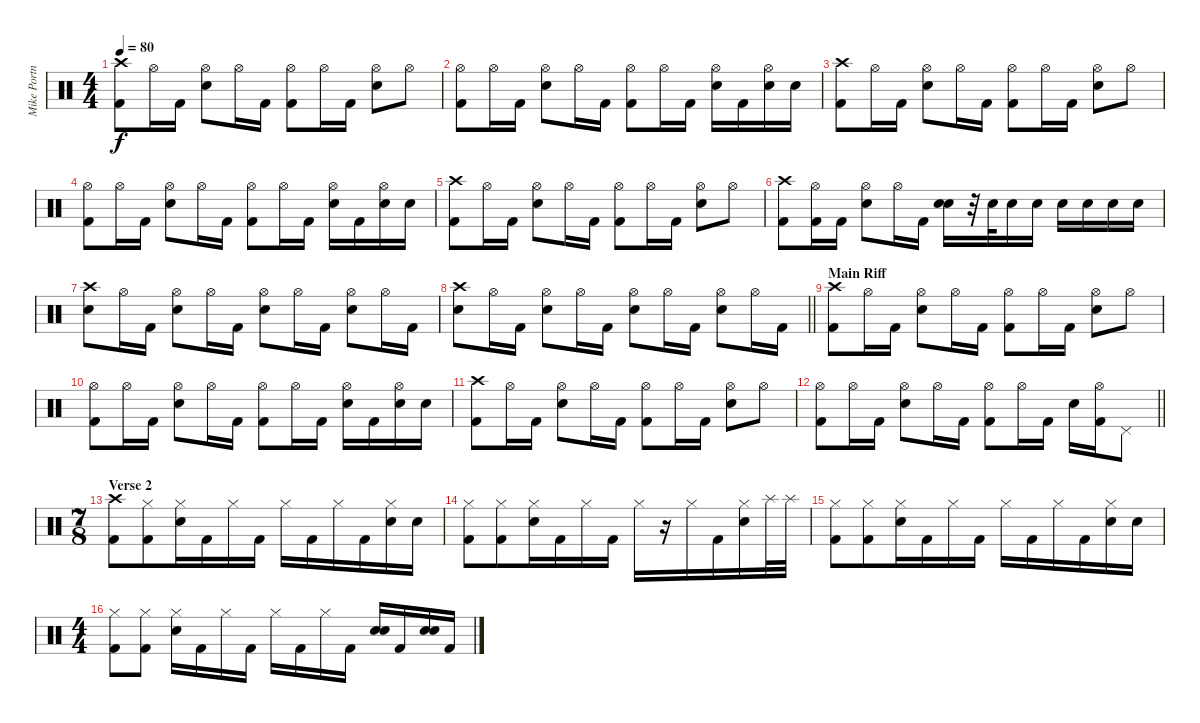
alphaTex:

\track ("Mike Portnoy" "Mike Portn") {instrument percussion}
\staff {score}
\articulation defaults
\ts (4 4)
\tempo 80
\clef neutral
\ks c
("Kick (hit) 2" "Crash high (hit)").8{dy f} "Hi-Hat (open)".16 "Kick (hit) 2".16 ("Electric Snare (hit)" "Hi-Hat (open)").8 "Hi-Hat (open)".16 "Kick (hit) 2".16 ("Kick (hit) 2" "Hi-Hat (open)").8 "Hi-Hat (open)".16 "Kick (hit) 2".16 ("Electric Snare (hit)" "Hi-Hat (open)").8 "Hi-Hat (open)".8 |
("Kick (hit) 2" "Hi-Hat (open)").8 "Hi-Hat (open)".16 "Kick (hit) 2".16 ("Electric Snare (hit)" "Hi-Hat (open)").8 "Hi-Hat (open)".16 "Kick (hit) 2".16 ("Kick (hit) 2" "Hi-Hat (open)").8 "Hi-Hat (open)".16 "Kick (hit) 2".16 ("Electric Snare (hit)" "Hi-Hat (open)").16 "Kick (hit) 2".16 ("Electric Snare (hit)" "Hi-Hat (open)").16 "Electric Snare (hit)".16 |
("Kick (hit) 2" "Crash high (hit)").8 "Hi-Hat (open)".16 "Kick (hit) 2".16 ("Electric Snare (hit)" "Hi-Hat (open)").8 "Hi-Hat (open)".16 "Kick (hit) 2".16 ("Kick (hit) 2" "Hi-Hat (open)").8 "Hi-Hat (open)".16 "Kick (hit) 2".16 ("Electric Snare (hit)" "Hi-Hat (open)").8 "Hi-Hat (open)".8 |
("Kick (hit) 2" "Hi-Hat (open)").8 "Hi-Hat (open)".16 "Kick (hit) 2".16 ("Electric Snare (hit)" "Hi-Hat (open)").8 "Hi-Hat (open)".16 "Kick (hit) 2".16 ("Kick (hit) 2" "Hi-Hat (open)").8 "Hi-Hat (open)".16 "Kick (hit) 2".16 ("Electric Snare (hit)" "Hi-Hat (open)").16 "Kick (hit) 2".16 ("Electric Snare (hit)" "Hi-Hat (open)").16 "Electric Snare (hit)".16 |
("Kick (hit) 2" "Crash high (hit)").8 "Hi-Hat (open)".16 "Kick (hit) 2".16 ("Electric Snare (hit)" "Hi-Hat (open)").8 "Hi-Hat (open)".16 "Kick (hit) 2".16 ("Kick (hit) 2" "Hi-Hat (open)").8 "Hi-Hat (open)".16 "Kick (hit) 2".16 ("Electric Snare (hit)" "Hi-Hat (open)").8 "Hi-Hat (open)".8 |
("Kick (hit) 2" "Crash high (hit)").8 ("Kick (hit) 2" "Hi-Hat (open)").16 "Kick (hit) 2".16 ("Electric Snare (hit)" "Hi-Hat (open)").8 "Hi-Hat (open)".16 "Kick (hit) 2".16 ("Electric Snare (hit)" "Electric Snare (hit)").16{bu 240} r.32 "Electric Snare (hit)".32 "Electric Snare (hit)".16 "Electric Snare (hit)".16 "Electric Snare (hit)".16 "Electric Snare (hit)".16 "Electric Snare (hit)".16 "Electric Snare (hit)".16 |
("Crash high (hit)" "Electric Snare (hit)").8 "Hi-Hat (open)".16 "Kick (hit) 2".16 ("Hi-Hat (open)" "Electric Snare (hit)").8 "Hi-Hat (open)".16 "Kick (hit) 2".16 ("Hi-Hat (open)" "Electric Snare (hit)").8 "Hi-Hat (open)".16 "Kick (hit) 2".16 ("Hi-Hat (open)" "Electric Snare (hit)").8 "Hi-Hat (open)".16 "Kick (hit) 2".16 |
\barLineRight lightlight
("Crash high (hit)" "Electric Snare (hit)").8 "Hi-Hat (open)".16 "Kick (hit) 2".16 ("Hi-Hat (open)" "Electric Snare (hit)").8 "Hi-Hat (open)".16 "Kick (hit) 2".16 ("Hi-Hat (open)" "Electric Snare (hit)").8 "Hi-Hat (open)".16 "Kick (hit) 2".16 ("Hi-Hat (open)" "Electric Snare (hit)").8 "Hi-Hat (open)".16 "Kick (hit) 2".16 |
\section ("" "Main Riff")
("Kick (hit) 2" "Crash high (hit)").8 "Hi-Hat (open)".16 "Kick (hit) 2".16 ("Electric Snare (hit)" "Hi-Hat (open)").8 "Hi-Hat (open)".16 "Kick (hit) 2".16 ("Kick (hit) 2" "Hi-Hat (open)").8 "Hi-Hat (open)".16 "Kick (hit) 2".16 ("Electric Snare (hit)" "Hi-Hat (open)").8 "Hi-Hat (open)".8 |
("Kick (hit) 2" "Hi-Hat (open)").8 "Hi-Hat (open)".16 "Kick (hit) 2".16 ("Electric Snare (hit)" "Hi-Hat (open)").8 "Hi-Hat (open)".16 "Kick (hit) 2".16 ("Kick (hit) 2" "Hi-Hat (open)").8 "Hi-Hat (open)".16 "Kick (hit) 2".16 ("Electric Snare (hit)" "Hi-Hat (open)").16 "Kick (hit) 2".16 ("Electric Snare (hit)" "Hi-Hat (open)").16 "Electric Snare (hit)".16 |
("Kick (hit) 2" "Crash high (hit)").8 "Hi-Hat (open)".16 "Kick (hit) 2".16 ("Electric Snare (hit)" "Hi-Hat (open)").8 "Hi-Hat (open)".16 "Kick (hit) 2".16 ("Kick (hit) 2" "Hi-Hat (open)").8 "Hi-Hat (open)".16 "Kick (hit) 2".16 ("Electric Snare (hit)" "Hi-Hat (open)").8 "Hi-Hat (open)".8 |
\barLineRight lightlight
("Kick (hit) 2" "Hi-Hat (open)").8 "Hi-Hat (open)".16 "Kick (hit) 2".16 ("Electric Snare (hit)" "Hi-Hat (open)").8 "Hi-Hat (open)".16 "Kick (hit) 2".16 ("Kick (hit) 2" "Hi-Hat (open)").8 "Hi-Hat (open)".16 "Kick (hit) 2".16 "Electric Snare (hit)".16 ("Kick (hit) 2" "Hi-Hat (open)").16 "Pedal Hi-Hat (hit)".8 |
\ts (7 8)
\section ("" "Verse 2")
("Kick (hit) 2" "Crash high (hit)").8 ("Kick (hit) 2" "Hi-Hat (closed)").8 ("Electric Snare (hit)" "Hi-Hat (closed)").16 "Kick (hit) 2".16 "Hi-Hat (closed)".16 "Kick (hit) 2".16 "Hi-Hat (closed)".16 "Kick (hit) 2".16 "Hi-Hat (closed)".16 "Kick (hit) 2".16 ("Electric Snare (hit)" "Hi-Hat (closed)").16 "Electric Snare (hit)".16 |
("Kick (hit) 2" "Hi-Hat (closed)").8 ("Kick (hit) 2" "Hi-Hat (closed)").8 ("Electric Snare (hit)" "Hi-Hat (closed)").16 "Kick (hit) 2".16 "Hi-Hat (closed)".16 "Kick (hit) 2".16 "Hi-Hat (closed)".16 r.16 "Hi-Hat (closed)".16 "Kick (hit) 2".16 ("Electric Snare (hit)" "Hi-Hat (closed)").16 "Splash (hit)".32 "Splash (hit)".32 |
("Kick (hit) 2" "Hi-Hat (closed)").8 ("Kick (hit) 2" "Hi-Hat (closed)").8 ("Electric Snare (hit)" "Hi-Hat (closed)").16 "Kick (hit) 2".16 "Hi-Hat (closed)".16 "Kick (hit) 2".16 "Hi-Hat (closed)".16 "Kick (hit) 2".16 "Hi-Hat (closed)".16 "Kick (hit) 2".16 ("Electric Snare (hit)" "Hi-Hat (closed)").16 "Electric Snare (hit)".16 |
\ts (4 4)
("Kick (hit) 2" "Hi-Hat (closed)").8 ("Kick (hit) 2" "Hi-Hat (closed)").8 ("Electric Snare (hit)" "Hi-Hat (closed)").16 "Kick (hit) 2".16 "Hi-Hat (closed)".16 "Kick (hit) 2".16 "Hi-Hat (closed)".16 "Kick (hit) 2".16 "Hi-Hat (closed)".16 "Kick (hit) 2".16 ("Electric Snare (hit)" "Electric Snare (hit)").16{bu 240} "Kick (hit) 2".16 ("Electric Snare (hit)" "Electric Snare (hit)").16{bu 240} "Kick (hit) 2".16
